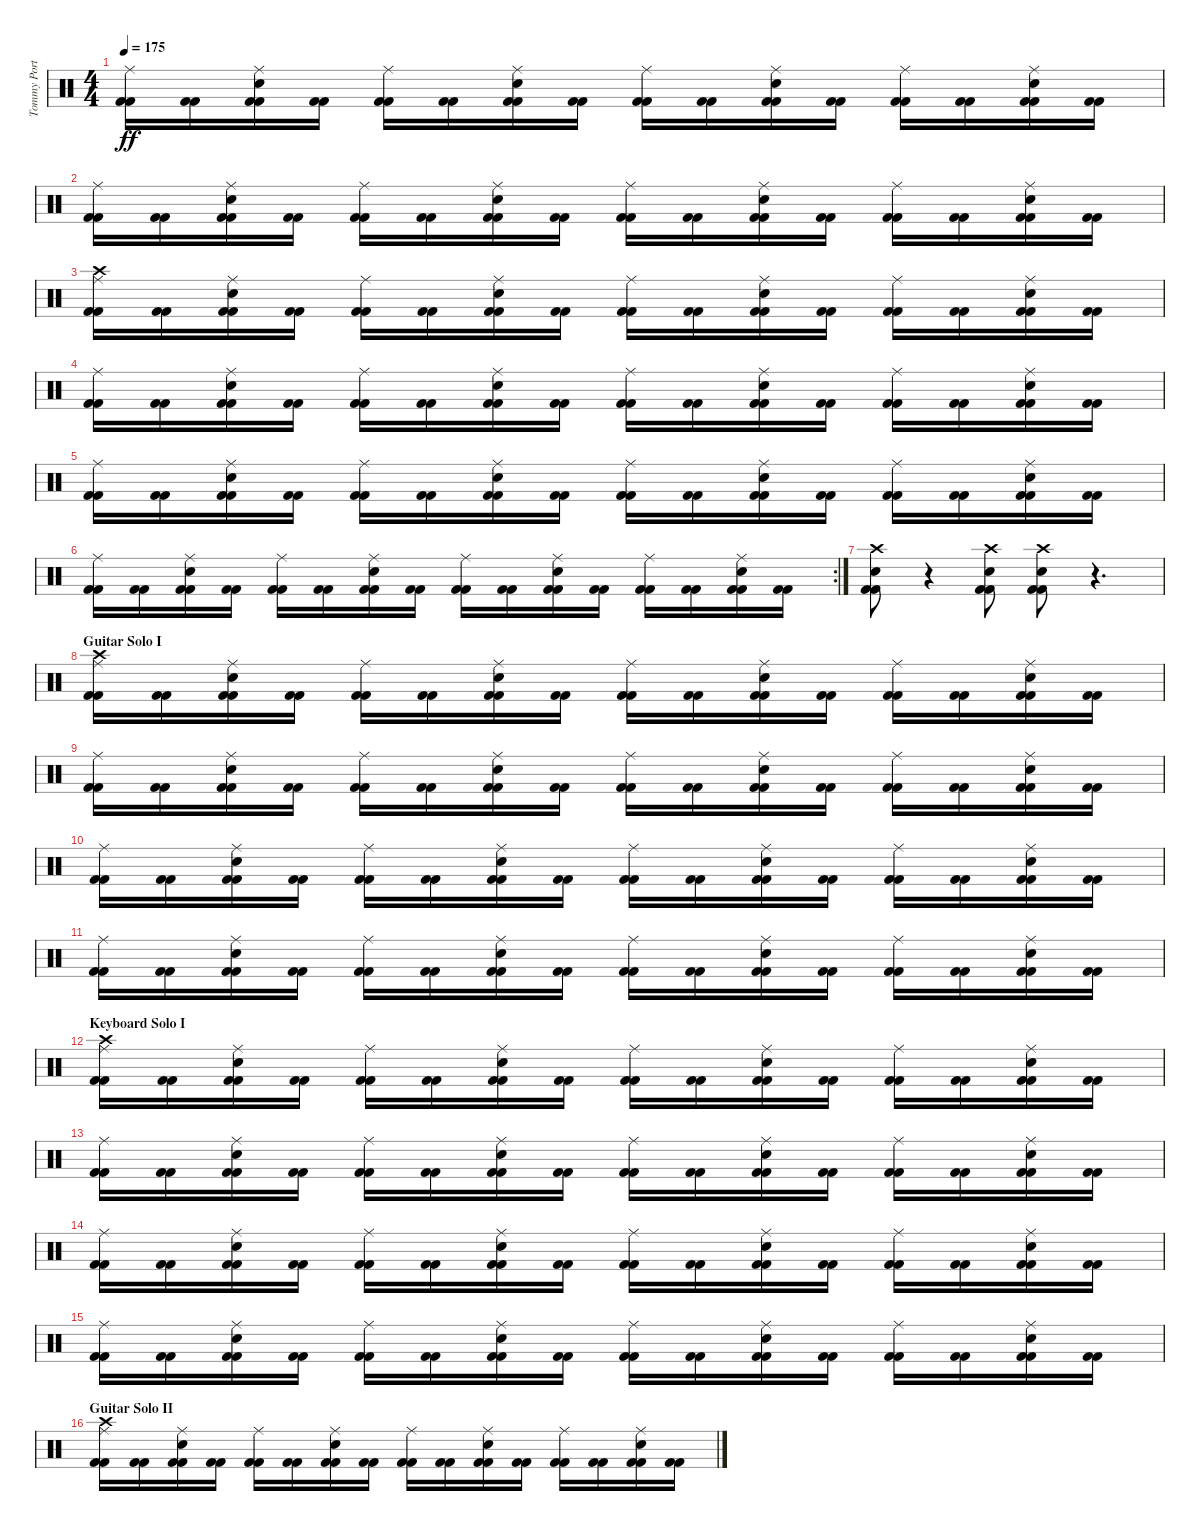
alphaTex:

\track ("Tommy Portimo" "Tommy Port") {instrument percussion}
\staff {score}
\articulation defaults
\ts (4 4)
\tempo 175
\clef neutral
\ks c
("Kick (hit) 2" "Kick (hit) 2" "Ride (middle)").16{dy ff} ("Kick (hit) 2" "Kick (hit) 2").16 ("Kick (hit) 2" "Kick (hit) 2" "Ride (middle)" "Electric Snare (hit)").16 ("Kick (hit) 2" "Kick (hit) 2").16 ("Kick (hit) 2" "Kick (hit) 2" "Ride (middle)").16 ("Kick (hit) 2" "Kick (hit) 2").16 ("Kick (hit) 2" "Kick (hit) 2" "Ride (middle)" "Electric Snare (hit)").16 ("Kick (hit) 2" "Kick (hit) 2").16 ("Kick (hit) 2" "Kick (hit) 2" "Ride (middle)").16 ("Kick (hit) 2" "Kick (hit) 2").16 ("Kick (hit) 2" "Kick (hit) 2" "Ride (middle)" "Electric Snare (hit)").16 ("Kick (hit) 2" "Kick (hit) 2").16 ("Kick (hit) 2" "Kick (hit) 2" "Ride (middle)").16 ("Kick (hit) 2" "Kick (hit) 2").16 ("Kick (hit) 2" "Kick (hit) 2" "Ride (middle)" "Electric Snare (hit)").16 ("Kick (hit) 2" "Kick (hit) 2").16 |
("Kick (hit) 2" "Kick (hit) 2" "Ride (middle)").16 ("Kick (hit) 2" "Kick (hit) 2").16 ("Kick (hit) 2" "Kick (hit) 2" "Ride (middle)" "Electric Snare (hit)").16 ("Kick (hit) 2" "Kick (hit) 2").16 ("Kick (hit) 2" "Kick (hit) 2" "Ride (middle)").16 ("Kick (hit) 2" "Kick (hit) 2").16 ("Kick (hit) 2" "Kick (hit) 2" "Ride (middle)" "Electric Snare (hit)").16 ("Kick (hit) 2" "Kick (hit) 2").16 ("Kick (hit) 2" "Kick (hit) 2" "Ride (middle)").16 ("Kick (hit) 2" "Kick (hit) 2").16 ("Kick (hit) 2" "Kick (hit) 2" "Ride (middle)" "Electric Snare (hit)").16 ("Kick (hit) 2" "Kick (hit) 2").16 ("Kick (hit) 2" "Kick (hit) 2" "Ride (middle)").16 ("Kick (hit) 2" "Kick (hit) 2").16 ("Kick (hit) 2" "Kick (hit) 2" "Ride (middle)" "Electric Snare (hit)").16 ("Kick (hit) 2" "Kick (hit) 2").16 |
("Kick (hit) 2" "Kick (hit) 2" "Ride (middle)" "Crash high (hit)").16 ("Kick (hit) 2" "Kick (hit) 2").16 ("Kick (hit) 2" "Kick (hit) 2" "Ride (middle)" "Electric Snare (hit)").16 ("Kick (hit) 2" "Kick (hit) 2").16 ("Kick (hit) 2" "Kick (hit) 2" "Ride (middle)").16 ("Kick (hit) 2" "Kick (hit) 2").16 ("Kick (hit) 2" "Kick (hit) 2" "Ride (middle)" "Electric Snare (hit)").16 ("Kick (hit) 2" "Kick (hit) 2").16 ("Kick (hit) 2" "Kick (hit) 2" "Ride (middle)").16 ("Kick (hit) 2" "Kick (hit) 2").16 ("Kick (hit) 2" "Kick (hit) 2" "Ride (middle)" "Electric Snare (hit)").16 ("Kick (hit) 2" "Kick (hit) 2").16 ("Kick (hit) 2" "Kick (hit) 2" "Ride (middle)").16 ("Kick (hit) 2" "Kick (hit) 2").16 ("Kick (hit) 2" "Kick (hit) 2" "Ride (middle)" "Electric Snare (hit)").16 ("Kick (hit) 2" "Kick (hit) 2").16 |
("Kick (hit) 2" "Kick (hit) 2" "Ride (middle)").16 ("Kick (hit) 2" "Kick (hit) 2").16 ("Kick (hit) 2" "Kick (hit) 2" "Ride (middle)" "Electric Snare (hit)").16 ("Kick (hit) 2" "Kick (hit) 2").16 ("Kick (hit) 2" "Kick (hit) 2" "Ride (middle)").16 ("Kick (hit) 2" "Kick (hit) 2").16 ("Kick (hit) 2" "Kick (hit) 2" "Ride (middle)" "Electric Snare (hit)").16 ("Kick (hit) 2" "Kick (hit) 2").16 ("Kick (hit) 2" "Kick (hit) 2" "Ride (middle)").16 ("Kick (hit) 2" "Kick (hit) 2").16 ("Kick (hit) 2" "Kick (hit) 2" "Ride (middle)" "Electric Snare (hit)").16 ("Kick (hit) 2" "Kick (hit) 2").16 ("Kick (hit) 2" "Kick (hit) 2" "Ride (middle)").16 ("Kick (hit) 2" "Kick (hit) 2").16 ("Kick (hit) 2" "Kick (hit) 2" "Ride (middle)" "Electric Snare (hit)").16 ("Kick (hit) 2" "Kick (hit) 2").16 |
("Kick (hit) 2" "Kick (hit) 2" "Ride (middle)").16 ("Kick (hit) 2" "Kick (hit) 2").16 ("Kick (hit) 2" "Kick (hit) 2" "Ride (middle)" "Electric Snare (hit)").16 ("Kick (hit) 2" "Kick (hit) 2").16 ("Kick (hit) 2" "Kick (hit) 2" "Ride (middle)").16 ("Kick (hit) 2" "Kick (hit) 2").16 ("Kick (hit) 2" "Kick (hit) 2" "Ride (middle)" "Electric Snare (hit)").16 ("Kick (hit) 2" "Kick (hit) 2").16 ("Kick (hit) 2" "Kick (hit) 2" "Ride (middle)").16 ("Kick (hit) 2" "Kick (hit) 2").16 ("Kick (hit) 2" "Kick (hit) 2" "Ride (middle)" "Electric Snare (hit)").16 ("Kick (hit) 2" "Kick (hit) 2").16 ("Kick (hit) 2" "Kick (hit) 2" "Ride (middle)").16 ("Kick (hit) 2" "Kick (hit) 2").16 ("Kick (hit) 2" "Kick (hit) 2" "Ride (middle)" "Electric Snare (hit)").16 ("Kick (hit) 2" "Kick (hit) 2").16 |
\rc 2
("Kick (hit) 2" "Kick (hit) 2" "Ride (middle)").16 ("Kick (hit) 2" "Kick (hit) 2").16 ("Kick (hit) 2" "Kick (hit) 2" "Ride (middle)" "Electric Snare (hit)").16 ("Kick (hit) 2" "Kick (hit) 2").16 ("Kick (hit) 2" "Kick (hit) 2" "Ride (middle)").16 ("Kick (hit) 2" "Kick (hit) 2").16 ("Kick (hit) 2" "Kick (hit) 2" "Ride (middle)" "Electric Snare (hit)").16 ("Kick (hit) 2" "Kick (hit) 2").16 ("Kick (hit) 2" "Kick (hit) 2" "Ride (middle)").16 ("Kick (hit) 2" "Kick (hit) 2").16 ("Kick (hit) 2" "Kick (hit) 2" "Ride (middle)" "Electric Snare (hit)").16 ("Kick (hit) 2" "Kick (hit) 2").16 ("Kick (hit) 2" "Kick (hit) 2" "Ride (middle)").16 ("Kick (hit) 2" "Kick (hit) 2").16 ("Kick (hit) 2" "Kick (hit) 2" "Ride (middle)" "Electric Snare (hit)").16 ("Kick (hit) 2" "Kick (hit) 2").16 |
("Kick (hit) 2" "Kick (hit) 2" "Electric Snare (hit)" "Crash high (hit)").8 r.4 ("Kick (hit) 2" "Kick (hit) 2" "Electric Snare (hit)" "Crash high (hit)").8 ("Kick (hit) 2" "Kick (hit) 2" "Electric Snare (hit)" "Crash high (hit)").8 r.4{d} |
\section ("" "Guitar Solo I")
("Kick (hit) 2" "Kick (hit) 2" "Ride (middle)" "Crash high (hit)").16 ("Kick (hit) 2" "Kick (hit) 2").16 ("Kick (hit) 2" "Kick (hit) 2" "Ride (middle)" "Electric Snare (hit)").16 ("Kick (hit) 2" "Kick (hit) 2").16 ("Kick (hit) 2" "Kick (hit) 2" "Ride (middle)").16 ("Kick (hit) 2" "Kick (hit) 2").16 ("Kick (hit) 2" "Kick (hit) 2" "Ride (middle)" "Electric Snare (hit)").16 ("Kick (hit) 2" "Kick (hit) 2").16 ("Kick (hit) 2" "Kick (hit) 2" "Ride (middle)").16 ("Kick (hit) 2" "Kick (hit) 2").16 ("Kick (hit) 2" "Kick (hit) 2" "Ride (middle)" "Electric Snare (hit)").16 ("Kick (hit) 2" "Kick (hit) 2").16 ("Kick (hit) 2" "Kick (hit) 2" "Ride (middle)").16 ("Kick (hit) 2" "Kick (hit) 2").16 ("Kick (hit) 2" "Kick (hit) 2" "Ride (middle)" "Electric Snare (hit)").16 ("Kick (hit) 2" "Kick (hit) 2").16 |
("Kick (hit) 2" "Kick (hit) 2" "Ride (middle)").16 ("Kick (hit) 2" "Kick (hit) 2").16 ("Kick (hit) 2" "Kick (hit) 2" "Ride (middle)" "Electric Snare (hit)").16 ("Kick (hit) 2" "Kick (hit) 2").16 ("Kick (hit) 2" "Kick (hit) 2" "Ride (middle)").16 ("Kick (hit) 2" "Kick (hit) 2").16 ("Kick (hit) 2" "Kick (hit) 2" "Ride (middle)" "Electric Snare (hit)").16 ("Kick (hit) 2" "Kick (hit) 2").16 ("Kick (hit) 2" "Kick (hit) 2" "Ride (middle)").16 ("Kick (hit) 2" "Kick (hit) 2").16 ("Kick (hit) 2" "Kick (hit) 2" "Ride (middle)" "Electric Snare (hit)").16 ("Kick (hit) 2" "Kick (hit) 2").16 ("Kick (hit) 2" "Kick (hit) 2" "Ride (middle)").16 ("Kick (hit) 2" "Kick (hit) 2").16 ("Kick (hit) 2" "Kick (hit) 2" "Ride (middle)" "Electric Snare (hit)").16 ("Kick (hit) 2" "Kick (hit) 2").16 |
("Kick (hit) 2" "Kick (hit) 2" "Ride (middle)").16 ("Kick (hit) 2" "Kick (hit) 2").16 ("Kick (hit) 2" "Kick (hit) 2" "Ride (middle)" "Electric Snare (hit)").16 ("Kick (hit) 2" "Kick (hit) 2").16 ("Kick (hit) 2" "Kick (hit) 2" "Ride (middle)").16 ("Kick (hit) 2" "Kick (hit) 2").16 ("Kick (hit) 2" "Kick (hit) 2" "Ride (middle)" "Electric Snare (hit)").16 ("Kick (hit) 2" "Kick (hit) 2").16 ("Kick (hit) 2" "Kick (hit) 2" "Ride (middle)").16 ("Kick (hit) 2" "Kick (hit) 2").16 ("Kick (hit) 2" "Kick (hit) 2" "Ride (middle)" "Electric Snare (hit)").16 ("Kick (hit) 2" "Kick (hit) 2").16 ("Kick (hit) 2" "Kick (hit) 2" "Ride (middle)").16 ("Kick (hit) 2" "Kick (hit) 2").16 ("Kick (hit) 2" "Kick (hit) 2" "Ride (middle)" "Electric Snare (hit)").16 ("Kick (hit) 2" "Kick (hit) 2").16 |
("Kick (hit) 2" "Kick (hit) 2" "Ride (middle)").16 ("Kick (hit) 2" "Kick (hit) 2").16 ("Kick (hit) 2" "Kick (hit) 2" "Ride (middle)" "Electric Snare (hit)").16 ("Kick (hit) 2" "Kick (hit) 2").16 ("Kick (hit) 2" "Kick (hit) 2" "Ride (middle)").16 ("Kick (hit) 2" "Kick (hit) 2").16 ("Kick (hit) 2" "Kick (hit) 2" "Ride (middle)" "Electric Snare (hit)").16 ("Kick (hit) 2" "Kick (hit) 2").16 ("Kick (hit) 2" "Kick (hit) 2" "Ride (middle)").16 ("Kick (hit) 2" "Kick (hit) 2").16 ("Kick (hit) 2" "Kick (hit) 2" "Ride (middle)" "Electric Snare (hit)").16 ("Kick (hit) 2" "Kick (hit) 2").16 ("Kick (hit) 2" "Kick (hit) 2" "Ride (middle)").16 ("Kick (hit) 2" "Kick (hit) 2").16 ("Kick (hit) 2" "Kick (hit) 2" "Ride (middle)" "Electric Snare (hit)").16 ("Kick (hit) 2" "Kick (hit) 2").16 |
\section ("" "Keyboard Solo I")
("Kick (hit) 2" "Kick (hit) 2" "Ride (middle)" "Crash high (hit)").16 ("Kick (hit) 2" "Kick (hit) 2").16 ("Kick (hit) 2" "Kick (hit) 2" "Ride (middle)" "Electric Snare (hit)").16 ("Kick (hit) 2" "Kick (hit) 2").16 ("Kick (hit) 2" "Kick (hit) 2" "Ride (middle)").16 ("Kick (hit) 2" "Kick (hit) 2").16 ("Kick (hit) 2" "Kick (hit) 2" "Ride (middle)" "Electric Snare (hit)").16 ("Kick (hit) 2" "Kick (hit) 2").16 ("Kick (hit) 2" "Kick (hit) 2" "Ride (middle)").16 ("Kick (hit) 2" "Kick (hit) 2").16 ("Kick (hit) 2" "Kick (hit) 2" "Ride (middle)" "Electric Snare (hit)").16 ("Kick (hit) 2" "Kick (hit) 2").16 ("Kick (hit) 2" "Kick (hit) 2" "Ride (middle)").16 ("Kick (hit) 2" "Kick (hit) 2").16 ("Kick (hit) 2" "Kick (hit) 2" "Ride (middle)" "Electric Snare (hit)").16 ("Kick (hit) 2" "Kick (hit) 2").16 |
("Kick (hit) 2" "Kick (hit) 2" "Ride (middle)").16 ("Kick (hit) 2" "Kick (hit) 2").16 ("Kick (hit) 2" "Kick (hit) 2" "Ride (middle)" "Electric Snare (hit)").16 ("Kick (hit) 2" "Kick (hit) 2").16 ("Kick (hit) 2" "Kick (hit) 2" "Ride (middle)").16 ("Kick (hit) 2" "Kick (hit) 2").16 ("Kick (hit) 2" "Kick (hit) 2" "Ride (middle)" "Electric Snare (hit)").16 ("Kick (hit) 2" "Kick (hit) 2").16 ("Kick (hit) 2" "Kick (hit) 2" "Ride (middle)").16 ("Kick (hit) 2" "Kick (hit) 2").16 ("Kick (hit) 2" "Kick (hit) 2" "Ride (middle)" "Electric Snare (hit)").16 ("Kick (hit) 2" "Kick (hit) 2").16 ("Kick (hit) 2" "Kick (hit) 2" "Ride (middle)").16 ("Kick (hit) 2" "Kick (hit) 2").16 ("Kick (hit) 2" "Kick (hit) 2" "Ride (middle)" "Electric Snare (hit)").16 ("Kick (hit) 2" "Kick (hit) 2").16 |
("Kick (hit) 2" "Kick (hit) 2" "Ride (middle)").16 ("Kick (hit) 2" "Kick (hit) 2").16 ("Kick (hit) 2" "Kick (hit) 2" "Ride (middle)" "Electric Snare (hit)").16 ("Kick (hit) 2" "Kick (hit) 2").16 ("Kick (hit) 2" "Kick (hit) 2" "Ride (middle)").16 ("Kick (hit) 2" "Kick (hit) 2").16 ("Kick (hit) 2" "Kick (hit) 2" "Ride (middle)" "Electric Snare (hit)").16 ("Kick (hit) 2" "Kick (hit) 2").16 ("Kick (hit) 2" "Kick (hit) 2" "Ride (middle)").16 ("Kick (hit) 2" "Kick (hit) 2").16 ("Kick (hit) 2" "Kick (hit) 2" "Ride (middle)" "Electric Snare (hit)").16 ("Kick (hit) 2" "Kick (hit) 2").16 ("Kick (hit) 2" "Kick (hit) 2" "Ride (middle)").16 ("Kick (hit) 2" "Kick (hit) 2").16 ("Kick (hit) 2" "Kick (hit) 2" "Ride (middle)" "Electric Snare (hit)").16 ("Kick (hit) 2" "Kick (hit) 2").16 |
("Kick (hit) 2" "Kick (hit) 2" "Ride (middle)").16 ("Kick (hit) 2" "Kick (hit) 2").16 ("Kick (hit) 2" "Kick (hit) 2" "Ride (middle)" "Electric Snare (hit)").16 ("Kick (hit) 2" "Kick (hit) 2").16 ("Kick (hit) 2" "Kick (hit) 2" "Ride (middle)").16 ("Kick (hit) 2" "Kick (hit) 2").16 ("Kick (hit) 2" "Kick (hit) 2" "Ride (middle)" "Electric Snare (hit)").16 ("Kick (hit) 2" "Kick (hit) 2").16 ("Kick (hit) 2" "Kick (hit) 2" "Ride (middle)").16 ("Kick (hit) 2" "Kick (hit) 2").16 ("Kick (hit) 2" "Kick (hit) 2" "Ride (middle)" "Electric Snare (hit)").16 ("Kick (hit) 2" "Kick (hit) 2").16 ("Kick (hit) 2" "Kick (hit) 2" "Ride (middle)").16 ("Kick (hit) 2" "Kick (hit) 2").16 ("Kick (hit) 2" "Kick (hit) 2" "Ride (middle)" "Electric Snare (hit)").16 ("Kick (hit) 2" "Kick (hit) 2").16 |
\section ("" "Guitar Solo II")
("Kick (hit) 2" "Kick (hit) 2" "Ride (middle)" "Crash high (hit)").16 ("Kick (hit) 2" "Kick (hit) 2").16 ("Kick (hit) 2" "Kick (hit) 2" "Ride (middle)" "Electric Snare (hit)").16 ("Kick (hit) 2" "Kick (hit) 2").16 ("Kick (hit) 2" "Kick (hit) 2" "Ride (middle)").16 ("Kick (hit) 2" "Kick (hit) 2").16 ("Kick (hit) 2" "Kick (hit) 2" "Ride (middle)" "Electric Snare (hit)").16 ("Kick (hit) 2" "Kick (hit) 2").16 ("Kick (hit) 2" "Kick (hit) 2" "Ride (middle)").16 ("Kick (hit) 2" "Kick (hit) 2").16 ("Kick (hit) 2" "Kick (hit) 2" "Ride (middle)" "Electric Snare (hit)").16 ("Kick (hit) 2" "Kick (hit) 2").16 ("Kick (hit) 2" "Kick (hit) 2" "Ride (middle)").16 ("Kick (hit) 2" "Kick (hit) 2").16 ("Kick (hit) 2" "Kick (hit) 2" "Ride (middle)" "Electric Snare (hit)").16 ("Kick (hit) 2" "Kick (hit) 2").16
